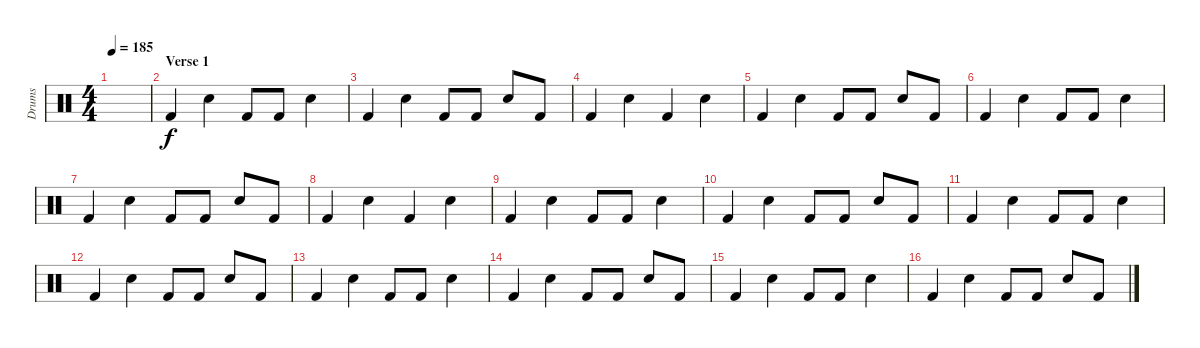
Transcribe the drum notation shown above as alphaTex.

\track ("Drums" "Drums") {instrument percussion}
\staff {score}
\articulation defaults
\ts (4 4)
\tempo 185
\clef neutral
\ks c
|
\section ("" "Verse 1")
"Kick (hit) 2".4 "Electric Snare (hit)".4 "Kick (hit) 2".8 "Kick (hit) 2".8 "Electric Snare (hit)".4 |
"Kick (hit) 2".4 "Electric Snare (hit)".4 "Kick (hit) 2".8 "Kick (hit) 2".8 "Electric Snare (hit)".8 "Kick (hit) 2".8 |
"Kick (hit) 2".4 "Electric Snare (hit)".4 "Kick (hit) 2".4 "Electric Snare (hit)".4 |
"Kick (hit) 2".4 "Electric Snare (hit)".4 "Kick (hit) 2".8 "Kick (hit) 2".8 "Electric Snare (hit)".8 "Kick (hit) 2".8 |
"Kick (hit) 2".4 "Electric Snare (hit)".4 "Kick (hit) 2".8 "Kick (hit) 2".8 "Electric Snare (hit)".4 |
"Kick (hit) 2".4 "Electric Snare (hit)".4 "Kick (hit) 2".8 "Kick (hit) 2".8 "Electric Snare (hit)".8 "Kick (hit) 2".8 |
"Kick (hit) 2".4 "Electric Snare (hit)".4 "Kick (hit) 2".4 "Electric Snare (hit)".4 |
"Kick (hit) 2".4 "Electric Snare (hit)".4 "Kick (hit) 2".8 "Kick (hit) 2".8 "Electric Snare (hit)".4 |
"Kick (hit) 2".4 "Electric Snare (hit)".4 "Kick (hit) 2".8 "Kick (hit) 2".8 "Electric Snare (hit)".8 "Kick (hit) 2".8 |
"Kick (hit) 2".4 "Electric Snare (hit)".4 "Kick (hit) 2".8 "Kick (hit) 2".8 "Electric Snare (hit)".4 |
"Kick (hit) 2".4 "Electric Snare (hit)".4 "Kick (hit) 2".8 "Kick (hit) 2".8 "Electric Snare (hit)".8 "Kick (hit) 2".8 |
"Kick (hit) 2".4 "Electric Snare (hit)".4 "Kick (hit) 2".8 "Kick (hit) 2".8 "Electric Snare (hit)".4 |
"Kick (hit) 2".4 "Electric Snare (hit)".4 "Kick (hit) 2".8 "Kick (hit) 2".8 "Electric Snare (hit)".8 "Kick (hit) 2".8 |
"Kick (hit) 2".4 "Electric Snare (hit)".4 "Kick (hit) 2".8 "Kick (hit) 2".8 "Electric Snare (hit)".4 |
"Kick (hit) 2".4 "Electric Snare (hit)".4 "Kick (hit) 2".8 "Kick (hit) 2".8 "Electric Snare (hit)".8 "Kick (hit) 2".8
